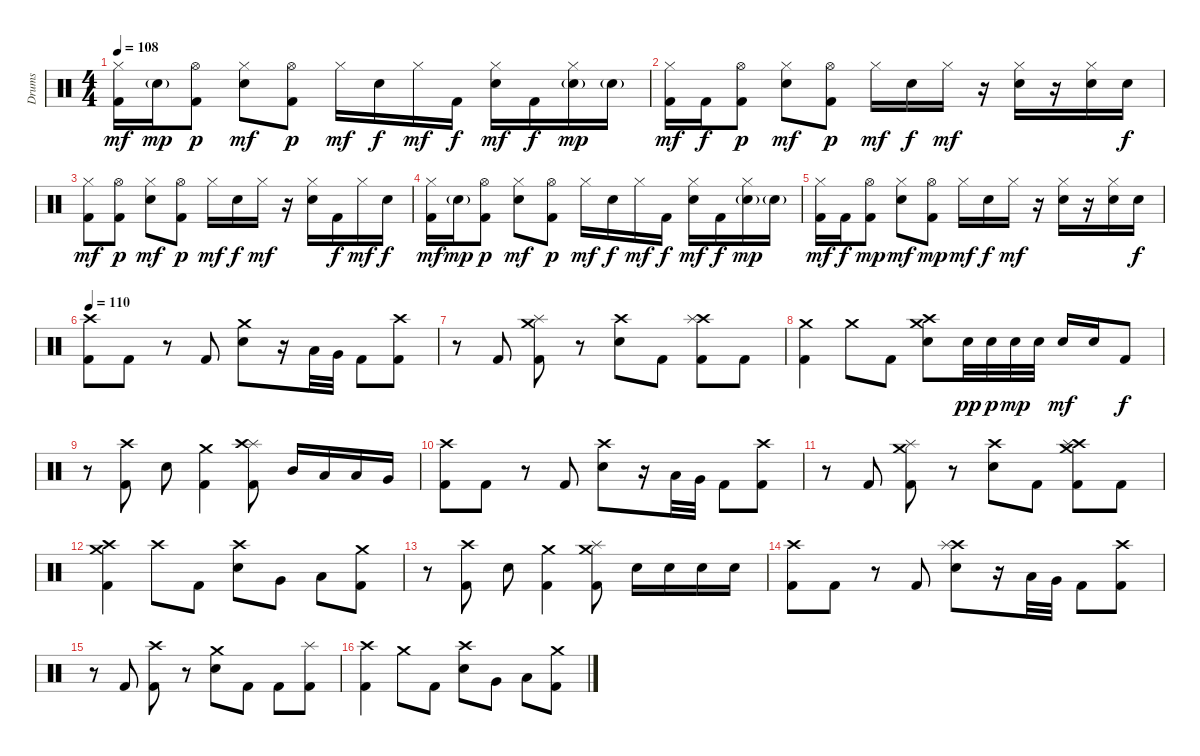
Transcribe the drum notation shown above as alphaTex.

\track ("Drums" "Drums") {instrument percussion}
\staff {score}
\articulation defaults
\ts (4 4)
\tempo 108
\clef neutral
\ks c
("Hi-Hat (closed)" "Kick (hit) 2").16{dy mf} "Electric Snare (hit)"{g}.16{dy mp} ("Hi-Hat (open)" "Kick (hit) 2").8{dy p} ("Hi-Hat (closed)" "Electric Snare (hit)").8{dy mf} ("Hi-Hat (open)" "Kick (hit) 2").8{dy p} "Hi-Hat (closed)".16{dy mf} "Electric Snare (hit)".16{dy f} "Hi-Hat (closed)".16{dy mf} "Kick (hit) 2".16{dy f} ("Hi-Hat (closed)" "Electric Snare (hit)").16{dy mf} "Kick (hit) 2".16{dy f} ("Hi-Hat (closed)" "Electric Snare (hit)"{g}).16{dy mp} "Electric Snare (hit)"{g}.16 |
("Hi-Hat (closed)" "Kick (hit) 2").16{dy mf} "Kick (hit) 2".16{dy f} ("Hi-Hat (open)" "Kick (hit) 2").8{dy p} ("Hi-Hat (closed)" "Electric Snare (hit)").8{dy mf} ("Hi-Hat (open)" "Kick (hit) 2").8{dy p} "Hi-Hat (closed)".16{dy mf} "Electric Snare (hit)".16{dy f} "Hi-Hat (closed)".16{dy mf} r.16 ("Hi-Hat (closed)" "Electric Snare (hit)").16 r.16 ("Hi-Hat (closed)" "Electric Snare (hit)").16 "Electric Snare (hit)".16{dy f} |
("Hi-Hat (closed)" "Kick (hit) 2").8{dy mf} ("Hi-Hat (open)" "Kick (hit) 2").8{dy p} ("Hi-Hat (closed)" "Electric Snare (hit)").8{dy mf} ("Hi-Hat (open)" "Kick (hit) 2").8{dy p} "Hi-Hat (closed)".16{dy mf} "Electric Snare (hit)".16{dy f} "Hi-Hat (closed)".16{dy mf} r.16 ("Hi-Hat (closed)" "Electric Snare (hit)").16 "Kick (hit) 2".16{dy f} "Hi-Hat (closed)".16{dy mf} "Electric Snare (hit)".16{dy f} |
("Hi-Hat (closed)" "Kick (hit) 2").16{dy mf} "Electric Snare (hit)"{g}.16{dy mp} ("Hi-Hat (open)" "Kick (hit) 2").8{dy p} ("Hi-Hat (closed)" "Electric Snare (hit)").8{dy mf} ("Hi-Hat (open)" "Kick (hit) 2").8{dy p} "Hi-Hat (closed)".16{dy mf} "Electric Snare (hit)".16{dy f} "Hi-Hat (closed)".16{dy mf} "Kick (hit) 2".16{dy f} ("Hi-Hat (closed)" "Electric Snare (hit)").16{dy mf} "Kick (hit) 2".16{dy f} ("Hi-Hat (closed)" "Electric Snare (hit)"{g}).16{dy mp} "Electric Snare (hit)"{g}.16 |
("Hi-Hat (closed)" "Kick (hit) 2").16{dy mf} "Kick (hit) 2".16{dy f} ("Hi-Hat (open)" "Kick (hit) 2").8{dy mp} ("Hi-Hat (closed)" "Electric Snare (hit)").8{dy mf} ("Hi-Hat (open)" "Kick (hit) 2").8{dy mp} "Hi-Hat (closed)".16{dy mf} "Electric Snare (hit)".16{dy f} "Hi-Hat (closed)".16{dy mf} r.16 ("Hi-Hat (closed)" "Electric Snare (hit)").16 r.16 ("Hi-Hat (closed)" "Electric Snare (hit)").16 "Electric Snare (hit)".16{dy f} |
\tempo 110
("Crash high (hit)" "Kick (hit) 2").8 "Kick (hit) 2".8 r.8 "Kick (hit) 2".8 ("Crash medium (hit)" "Electric Snare (hit)").8 r.16 "Low Tom (hit)".32 "Very Low Tom (hit)".32 "Kick (hit) 2".8 ("Crash high (hit)" "Kick (hit) 2").8 |
r.8 "Kick (hit) 2".8 ("Crash medium (hit)" "Splash (hit)" "Kick (hit) 2").8 r.8 ("Crash high (hit)" "Electric Snare (hit)").8 "Kick (hit) 2".8 ("Crash high (hit)" "Splash (hit)" "Kick (hit) 2").8 "Kick (hit) 2".8 |
("Crash medium (hit)" "Kick (hit) 2").4 "Crash medium (hit)".8 "Kick (hit) 2".8 ("Crash medium (hit)" "Crash high (hit)" "Electric Snare (hit)").8 "Electric Snare (hit)".32{dy pp} "Electric Snare (hit)".32{dy p} "Electric Snare (hit)".32{dy mp} "Electric Snare (hit)".32 "Electric Snare (hit)".16{dy mf} "Electric Snare (hit)".16 "Kick (hit) 2".8{dy f} |
r.8 ("Crash high (hit)" "Kick (hit) 2").8 "Electric Snare (hit)".8 ("Crash medium (hit)" "Kick (hit) 2").4 ("Splash (hit)" "Crash high (hit)" "Kick (hit) 2").8 "Mid Tom (hit)".16 "Low Tom (hit)".16 "Low Tom (hit)".16 "Very Low Tom (hit)".16 |
("Crash high (hit)" "Kick (hit) 2").8 "Kick (hit) 2".8 r.8 "Kick (hit) 2".8 ("Crash high (hit)" "Electric Snare (hit)").8 r.16 "Low Tom (hit)".32 "Very Low Tom (hit)".32 "Kick (hit) 2".8 ("Crash high (hit)" "Kick (hit) 2").8 |
r.8 "Kick (hit) 2".8 ("Crash medium (hit)" "Splash (hit)" "Kick (hit) 2").8 r.8 ("Crash high (hit)" "Electric Snare (hit)").8 "Kick (hit) 2".8 ("Crash high (hit)" "Splash (hit)" "Crash medium (hit)" "Kick (hit) 2").8 "Kick (hit) 2".8 |
("Crash high (hit)" "Crash medium (hit)" "Kick (hit) 2").4 "Crash high (hit)".8 "Kick (hit) 2".8 ("Crash high (hit)" "Electric Snare (hit)").8 "Very Low Tom (hit)".8 "Low Floor Tom (hit)".8 ("Crash medium (hit)" "Kick (hit) 2").8 |
r.8 ("Crash high (hit)" "Kick (hit) 2").8 "Electric Snare (hit)".8 ("Crash medium (hit)" "Kick (hit) 2").4 ("Crash medium (hit)" "Splash (hit)" "Kick (hit) 2").8 "Electric Snare (hit)".16 "Electric Snare (hit)".16 "Electric Snare (hit)".16 "Electric Snare (hit)".16 |
("Crash high (hit)" "Kick (hit) 2").8 "Kick (hit) 2".8 r.8 "Kick (hit) 2".8 ("Crash high (hit)" "Splash (hit)" "Electric Snare (hit)").8 r.16 "Low Tom (hit)".32 "Very Low Tom (hit)".32 "Kick (hit) 2".8 ("Crash high (hit)" "Kick (hit) 2").8 |
r.8 "Kick (hit) 2".8 ("Crash high (hit)" "Kick (hit) 2").8 r.8 ("Crash medium (hit)" "Electric Snare (hit)").8 "Kick (hit) 2".8 "Kick (hit) 2".8 ("Splash (hit)" "Kick (hit) 2").8 |
("Crash high (hit)" "Kick (hit) 2").4 "Crash medium (hit)".8 "Kick (hit) 2".8 ("Crash high (hit)" "Electric Snare (hit)").8 "Very Low Tom (hit)".8 "Low Floor Tom (hit)".8 ("Crash medium (hit)" "Kick (hit) 2").8
